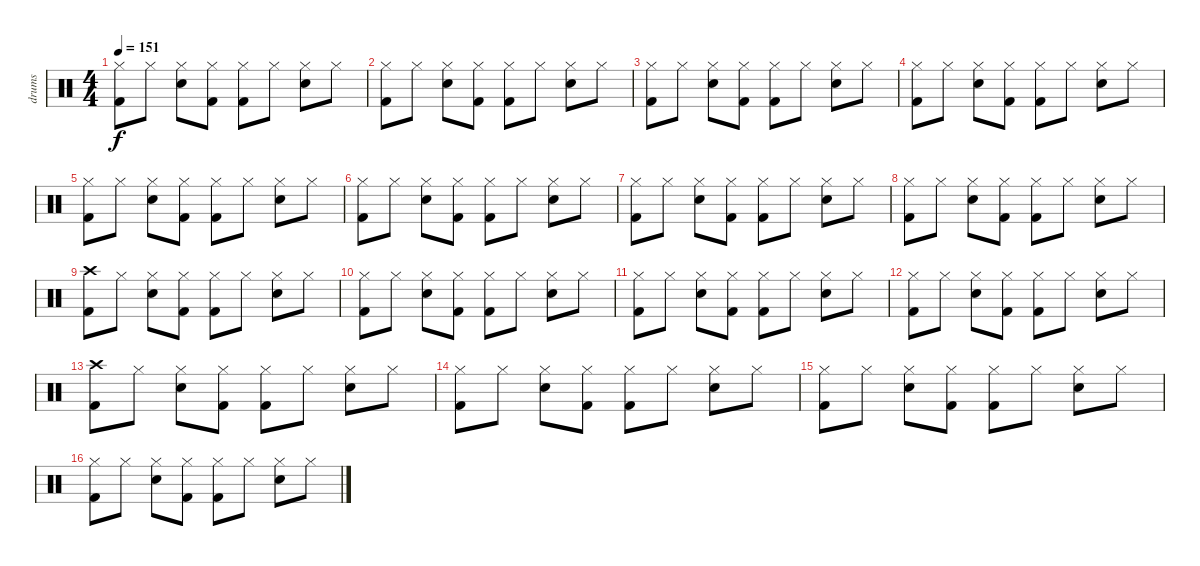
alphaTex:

\track ("drums" "drums") {instrument percussion}
\staff {score}
\articulation defaults
\ts (4 4)
\tempo 151
\clef neutral
\ks c
("Hi-Hat (closed)" "Kick (hit) 2").8{dy f} "Hi-Hat (closed)".8 ("Hi-Hat (closed)" "Electric Snare (hit)").8 ("Hi-Hat (closed)" "Kick (hit) 2").8 ("Hi-Hat (closed)" "Kick (hit) 2").8 "Hi-Hat (closed)".8 ("Hi-Hat (closed)" "Electric Snare (hit)").8 "Hi-Hat (closed)".8 |
("Hi-Hat (closed)" "Kick (hit) 2").8 "Hi-Hat (closed)".8 ("Hi-Hat (closed)" "Electric Snare (hit)").8 ("Hi-Hat (closed)" "Kick (hit) 2").8 ("Hi-Hat (closed)" "Kick (hit) 2").8 "Hi-Hat (closed)".8 ("Hi-Hat (closed)" "Electric Snare (hit)").8 "Hi-Hat (closed)".8 |
("Hi-Hat (closed)" "Kick (hit) 2").8 "Hi-Hat (closed)".8 ("Hi-Hat (closed)" "Electric Snare (hit)").8 ("Hi-Hat (closed)" "Kick (hit) 2").8 ("Hi-Hat (closed)" "Kick (hit) 2").8 "Hi-Hat (closed)".8 ("Hi-Hat (closed)" "Electric Snare (hit)").8 "Hi-Hat (closed)".8 |
("Hi-Hat (closed)" "Kick (hit) 2").8 "Hi-Hat (closed)".8 ("Hi-Hat (closed)" "Electric Snare (hit)").8 ("Hi-Hat (closed)" "Kick (hit) 2").8 ("Hi-Hat (closed)" "Kick (hit) 2").8 "Hi-Hat (closed)".8 ("Hi-Hat (closed)" "Electric Snare (hit)").8 "Hi-Hat (closed)".8 |
("Hi-Hat (closed)" "Kick (hit) 2").8 "Hi-Hat (closed)".8 ("Hi-Hat (closed)" "Electric Snare (hit)").8 ("Hi-Hat (closed)" "Kick (hit) 2").8 ("Hi-Hat (closed)" "Kick (hit) 2").8 "Hi-Hat (closed)".8 ("Hi-Hat (closed)" "Electric Snare (hit)").8 "Hi-Hat (closed)".8 |
("Hi-Hat (closed)" "Kick (hit) 2").8 "Hi-Hat (closed)".8 ("Hi-Hat (closed)" "Electric Snare (hit)").8 ("Hi-Hat (closed)" "Kick (hit) 2").8 ("Hi-Hat (closed)" "Kick (hit) 2").8 "Hi-Hat (closed)".8 ("Hi-Hat (closed)" "Electric Snare (hit)").8 "Hi-Hat (closed)".8 |
("Hi-Hat (closed)" "Kick (hit) 2").8 "Hi-Hat (closed)".8 ("Hi-Hat (closed)" "Electric Snare (hit)").8 ("Hi-Hat (closed)" "Kick (hit) 2").8 ("Hi-Hat (closed)" "Kick (hit) 2").8 "Hi-Hat (closed)".8 ("Hi-Hat (closed)" "Electric Snare (hit)").8 "Hi-Hat (closed)".8 |
("Hi-Hat (closed)" "Kick (hit) 2").8 "Hi-Hat (closed)".8 ("Hi-Hat (closed)" "Electric Snare (hit)").8 ("Hi-Hat (closed)" "Kick (hit) 2").8 ("Hi-Hat (closed)" "Kick (hit) 2").8 "Hi-Hat (closed)".8 ("Hi-Hat (closed)" "Electric Snare (hit)").8 "Hi-Hat (closed)".8 |
("Crash high (hit)" "Kick (hit) 2").8 "Hi-Hat (closed)".8 ("Hi-Hat (closed)" "Electric Snare (hit)").8 ("Hi-Hat (closed)" "Kick (hit) 2").8 ("Hi-Hat (closed)" "Kick (hit) 2").8 "Hi-Hat (closed)".8 ("Hi-Hat (closed)" "Electric Snare (hit)").8 "Hi-Hat (closed)".8 |
("Hi-Hat (closed)" "Kick (hit) 2").8 "Hi-Hat (closed)".8 ("Hi-Hat (closed)" "Electric Snare (hit)").8 ("Hi-Hat (closed)" "Kick (hit) 2").8 ("Hi-Hat (closed)" "Kick (hit) 2").8 "Hi-Hat (closed)".8 ("Hi-Hat (closed)" "Electric Snare (hit)").8 "Hi-Hat (closed)".8 |
("Hi-Hat (closed)" "Kick (hit) 2").8 "Hi-Hat (closed)".8 ("Hi-Hat (closed)" "Electric Snare (hit)").8 ("Hi-Hat (closed)" "Kick (hit) 2").8 ("Hi-Hat (closed)" "Kick (hit) 2").8 "Hi-Hat (closed)".8 ("Hi-Hat (closed)" "Electric Snare (hit)").8 "Hi-Hat (closed)".8 |
("Hi-Hat (closed)" "Kick (hit) 2").8 "Hi-Hat (closed)".8 ("Hi-Hat (closed)" "Electric Snare (hit)").8 ("Hi-Hat (closed)" "Kick (hit) 2").8 ("Hi-Hat (closed)" "Kick (hit) 2").8 "Hi-Hat (closed)".8 ("Hi-Hat (closed)" "Electric Snare (hit)").8 "Hi-Hat (closed)".8 |
("Crash high (hit)" "Kick (hit) 2").8 "Hi-Hat (closed)".8 ("Hi-Hat (closed)" "Electric Snare (hit)").8 ("Hi-Hat (closed)" "Kick (hit) 2").8 ("Hi-Hat (closed)" "Kick (hit) 2").8 "Hi-Hat (closed)".8 ("Hi-Hat (closed)" "Electric Snare (hit)").8 "Hi-Hat (closed)".8 |
("Hi-Hat (closed)" "Kick (hit) 2").8 "Hi-Hat (closed)".8 ("Hi-Hat (closed)" "Electric Snare (hit)").8 ("Hi-Hat (closed)" "Kick (hit) 2").8 ("Hi-Hat (closed)" "Kick (hit) 2").8 "Hi-Hat (closed)".8 ("Hi-Hat (closed)" "Electric Snare (hit)").8 "Hi-Hat (closed)".8 |
("Hi-Hat (closed)" "Kick (hit) 2").8 "Hi-Hat (closed)".8 ("Hi-Hat (closed)" "Electric Snare (hit)").8 ("Hi-Hat (closed)" "Kick (hit) 2").8 ("Hi-Hat (closed)" "Kick (hit) 2").8 "Hi-Hat (closed)".8 ("Hi-Hat (closed)" "Electric Snare (hit)").8 "Hi-Hat (closed)".8 |
("Hi-Hat (closed)" "Kick (hit) 2").8 "Hi-Hat (closed)".8 ("Hi-Hat (closed)" "Electric Snare (hit)").8 ("Hi-Hat (closed)" "Kick (hit) 2").8 ("Hi-Hat (closed)" "Kick (hit) 2").8 "Hi-Hat (closed)".8 ("Hi-Hat (closed)" "Electric Snare (hit)").8 "Hi-Hat (closed)".8
